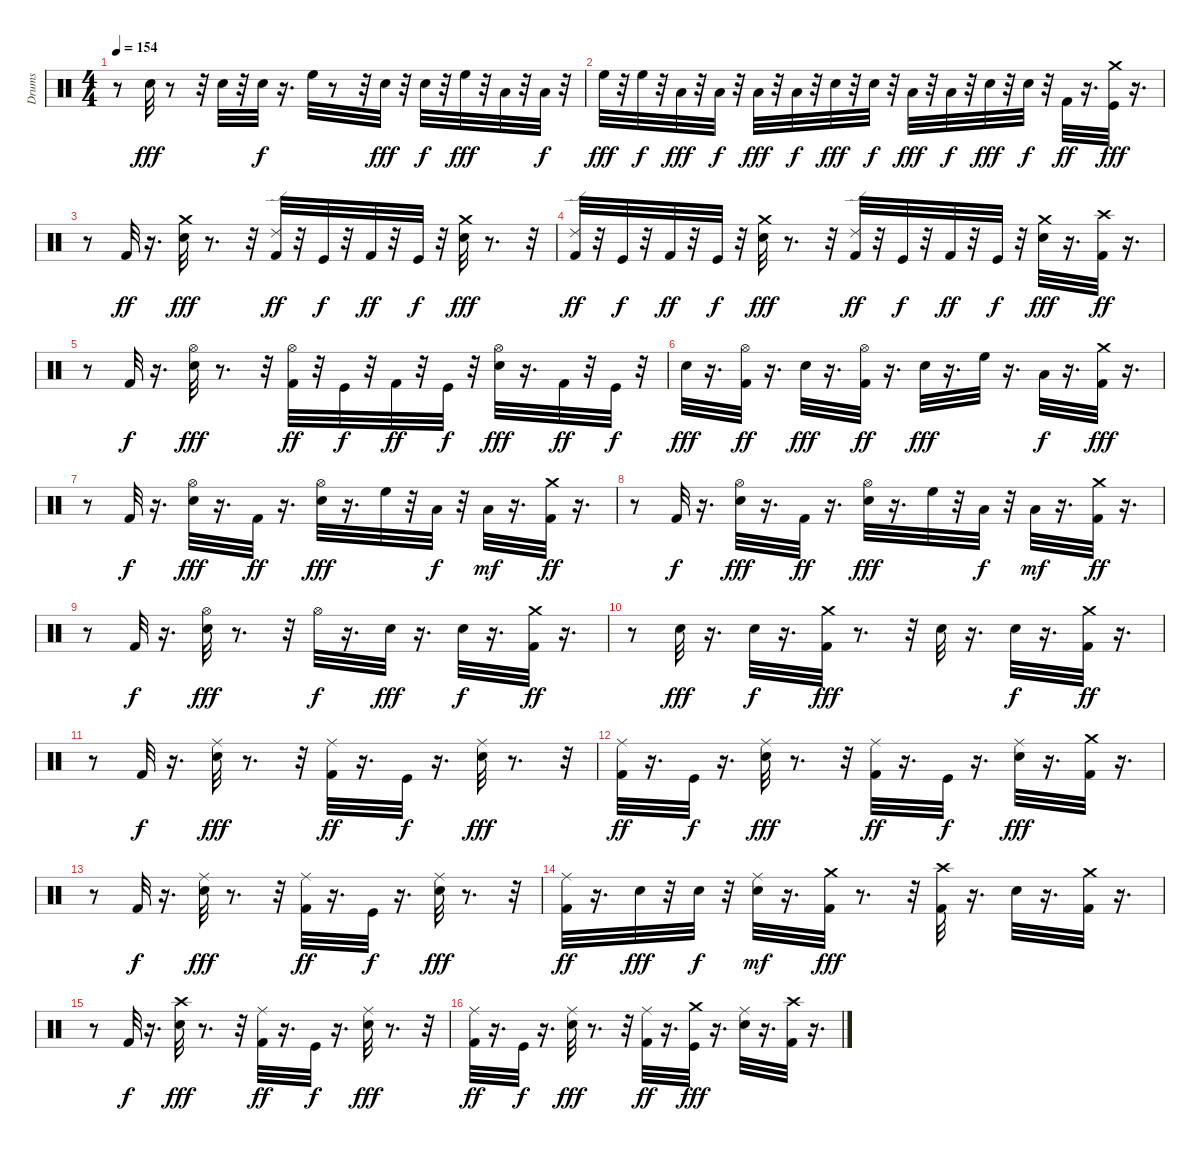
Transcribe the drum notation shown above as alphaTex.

\track ("Drums" "Drums") {instrument percussion}
\staff {score}
\articulation defaults
\ts (4 4)
\tempo 154
\clef neutral
\ks c
r.8{dy fff} "Snare (hit) 2".32 r.8 r.32 "Snare (hit) 2".32 r.32 "Snare (hit) 2".32{dy f} r.16{d} "High Floor Tom (hit)".32 r.8 r.32 "Snare (hit) 2".32{dy fff} r.32 "Snare (hit) 2".32{dy f} r.32 "High Floor Tom (hit)".32{dy fff} r.32 "Low Tom (hit)".32 r.32 "Low Tom (hit)".32{dy f} r.32 |
"High Floor Tom (hit)".32{dy fff} r.32 "High Floor Tom (hit)".32{dy f} r.32 "Low Tom (hit)".32{dy fff} r.32 "Low Tom (hit)".32{dy f} r.32 "Low Floor Tom (hit)".32{dy fff} r.32 "Low Floor Tom (hit)".32{dy f} r.32 "Snare (hit) 2".32{dy fff} r.32 "Snare (hit) 2".32{dy f} r.32 "Low Floor Tom (hit)".32{dy fff} r.32 "Low Floor Tom (hit)".32{dy f} r.32 "Snare (hit) 2".32{dy fff} r.32 "Snare (hit) 2".32{dy f} r.32 "Kick (hit) 2".32{dy ff} r.16{d} ("Crash medium (hit)" "Kick (hit)").32{dy fff} r.16{d} |
r.8 "Kick (hit) 2".32{dy ff} r.16{d} ("Crash medium (hit)" "Snare (hit) 2").32{dy fff} r.8{d} r.32 ("Ride (edge) 2" "Kick (hit) 2").32{dy ff} r.32 "Kick (hit)".32{dy f} r.32 "Kick (hit) 2".32{dy ff} r.32 "Kick (hit)".32{dy f} r.32 ("Crash medium (hit)" "Snare (hit) 2").32{dy fff} r.8{d} r.32 |
("Kick (hit) 2" "Ride (edge) 2").32{dy ff} r.32 "Kick (hit)".32{dy f} r.32 "Kick (hit) 2".32{dy ff} r.32 "Kick (hit)".32{dy f} r.32 ("Snare (hit) 2" "Crash medium (hit)").32{dy fff} r.8{d} r.32 ("Kick (hit) 2" "Ride (edge) 2").32{dy ff} r.32 "Kick (hit)".32{dy f} r.32 "Kick (hit) 2".32{dy ff} r.32 "Kick (hit)".32{dy f} r.32 ("Snare (hit) 2" "Crash medium (hit)").32{dy fff} r.16{d} ("Kick (hit) 2" "Crash high (hit)").32{dy ff} r.16{d} |
r.8 "Kick (hit) 2".32{dy f} r.16{d} ("Snare (hit) 2" "Hi-Hat (open)").32{dy fff} r.8{d} r.32 ("Kick (hit) 2" "Hi-Hat (open)").32{dy ff} r.32 "Kick (hit)".32{dy f} r.32 "Kick (hit) 2".32{dy ff} r.32 "Kick (hit)".32{dy f} r.32 ("Snare (hit) 2" "Hi-Hat (open)").32{dy fff} r.16{d} "Kick (hit) 2".32{dy ff} r.32 "Kick (hit)".32{dy f} r.32 |
"Snare (hit) 2".32{dy fff} r.16{d} ("Kick (hit) 2" "Hi-Hat (open)").32{dy ff} r.16{d} "Snare (hit) 2".32{dy fff} r.16{d} ("Kick (hit) 2" "Hi-Hat (open)").32{dy ff} r.16{d} "Snare (hit) 2".32{dy fff} r.16{d} "High Floor Tom (hit)".32 r.16{d} "Low Tom (hit)".32{dy f} r.16{d} ("Kick (hit) 2" "Crash medium (hit)").32{dy fff} r.16{d} |
r.8 "Kick (hit) 2".32{dy f} r.16{d} ("Snare (hit) 2" "Hi-Hat (open)").32{dy fff} r.16{d} "Kick (hit) 2".32{dy ff} r.16{d} ("Snare (hit) 2" "Hi-Hat (open)").32{dy fff} r.16{d} "High Floor Tom (hit)".32 r.32 "Low Tom (hit)".32{dy f} r.32 "Low Floor Tom (hit)".32{dy mf} r.16{d} ("Crash medium (hit)" "Kick (hit) 2").32{dy ff} r.16{d} |
r.8 "Kick (hit) 2".32{dy f} r.16{d} ("Hi-Hat (open)" "Snare (hit) 2").32{dy fff} r.16{d} "Kick (hit) 2".32{dy ff} r.16{d} ("Snare (hit) 2" "Hi-Hat (open)").32{dy fff} r.16{d} "High Floor Tom (hit)".32 r.32 "Low Tom (hit)".32{dy f} r.32 "Low Floor Tom (hit)".32{dy mf} r.16{d} ("Crash medium (hit)" "Kick (hit) 2").32{dy ff} r.16{d} |
r.8 "Kick (hit) 2".32{dy f} r.16{d} ("Snare (hit) 2" "Hi-Hat (open)").32{dy fff} r.8{d} r.32 "Hi-Hat (open)".32{dy f} r.16{d} "Snare (hit) 2".32{dy fff} r.16{d} "Snare (hit) 2".32{dy f} r.16{d} ("Crash medium (hit)" "Kick (hit) 2").32{dy ff} r.16{d} |
r.8 "Snare (hit) 2".32{dy fff} r.16{d} "Snare (hit) 2".32{dy f} r.16{d} ("Kick (hit) 2" "Crash medium (hit)").32{dy fff} r.8{d} r.32 "Snare (hit) 2".32 r.16{d} "Snare (hit) 2".32{dy f} r.16{d} ("Crash medium (hit)" "Kick (hit) 2").32{dy ff} r.16{d} |
r.8 "Kick (hit) 2".32{dy f} r.16{d} ("Snare (hit) 2" "Ride (middle)").32{dy fff} r.8{d} r.32 ("Kick (hit) 2" "Ride (middle)").32{dy ff} r.16{d} "Kick (hit)".32{dy f} r.16{d} ("Snare (hit) 2" "Ride (middle)").32{dy fff} r.8{d} r.32 |
("Kick (hit) 2" "Ride (middle)").32{dy ff} r.16{d} "Kick (hit)".32{dy f} r.16{d} ("Snare (hit) 2" "Ride (middle)").32{dy fff} r.8{d} r.32 ("Ride (middle)" "Kick (hit) 2").32{dy ff} r.16{d} "Kick (hit)".32{dy f} r.16{d} ("Snare (hit) 2" "Ride (middle)").32{dy fff} r.16{d} ("Kick (hit) 2" "Crash medium (hit)").32 r.16{d} |
r.8 "Kick (hit) 2".32{dy f} r.16{d} ("Snare (hit) 2" "Ride (middle)").32{dy fff} r.8{d} r.32 ("Kick (hit) 2" "Ride (middle)").32{dy ff} r.16{d} "Kick (hit)".32{dy f} r.16{d} ("Snare (hit) 2" "Ride (middle)").32{dy fff} r.8{d} r.32 |
("Kick (hit) 2" "Ride (middle)").32{dy ff} r.16{d} "Snare (hit) 2".32{dy fff} r.32 "Snare (hit) 2".32{dy f} r.32 ("Snare (hit) 2" "Ride (middle)").32{dy mf} r.16{d} ("Kick (hit) 2" "Crash medium (hit)").32{dy fff} r.8{d} r.32 ("Kick (hit) 2" "Crash high (hit)").32 r.16{d} "Snare (hit) 2".32 r.16{d} ("Kick (hit) 2" "Crash medium (hit)").32 r.16{d} |
r.8 "Kick (hit) 2".32{dy f} r.16{d} ("Snare (hit) 2" "Crash high (hit)").32{dy fff} r.8{d} r.32 ("Kick (hit) 2" "Ride (middle)").32{dy ff} r.16{d} "Kick (hit)".32{dy f} r.16{d} ("Snare (hit) 2" "Ride (middle)").32{dy fff} r.8{d} r.32 |
("Kick (hit) 2" "Ride (middle)").32{dy ff} r.16{d} "Kick (hit)".32{dy f} r.16{d} ("Snare (hit) 2" "Ride (middle)").32{dy fff} r.8{d} r.32 ("Kick (hit) 2" "Ride (middle)").32{dy ff} r.16{d} ("Kick (hit)" "Crash medium (hit)").32{dy fff} r.16{d} ("Snare (hit) 2" "Ride (middle)").32 r.16{d} ("Kick (hit) 2" "Crash high (hit)").32 r.16{d}
